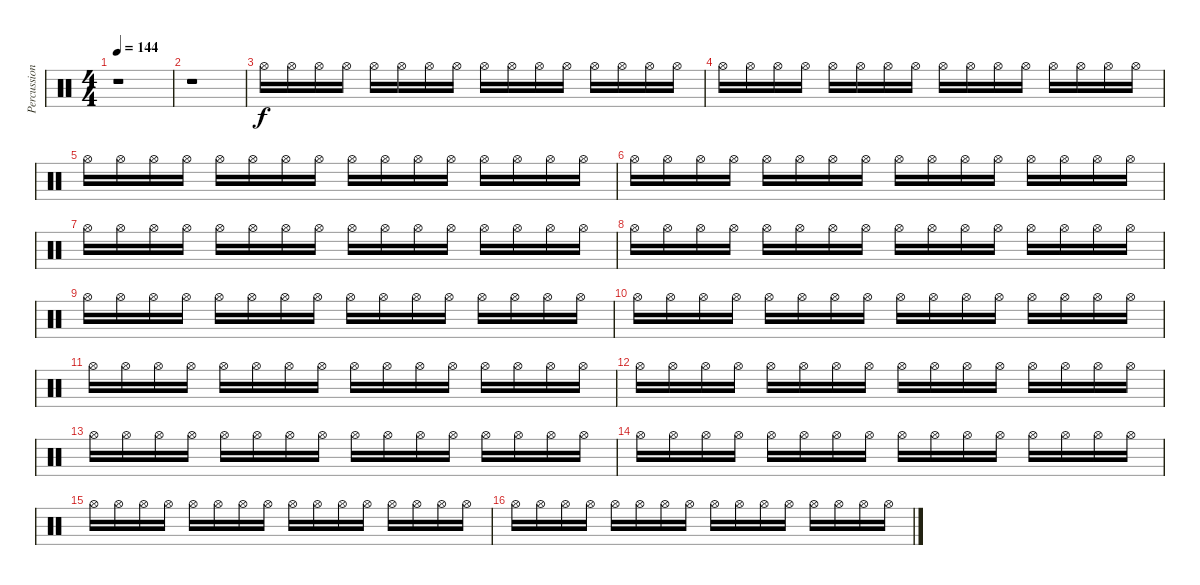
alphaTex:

\track ("Percussion" "Percussion") {instrument percussion}
\staff {score}
\articulation defaults
\ts (4 4)
\tempo 144
\clef neutral
\ks c
r.1{dy f} |
r.1 |
"Hi-Hat (open)".16 "Hi-Hat (open)".16 "Hi-Hat (open)".16 "Hi-Hat (open)".16 "Hi-Hat (open)".16 "Hi-Hat (open)".16 "Hi-Hat (open)".16 "Hi-Hat (open)".16 "Hi-Hat (open)".16 "Hi-Hat (open)".16 "Hi-Hat (open)".16 "Hi-Hat (open)".16 "Hi-Hat (open)".16 "Hi-Hat (open)".16 "Hi-Hat (open)".16 "Hi-Hat (open)".16 |
"Hi-Hat (open)".16 "Hi-Hat (open)".16 "Hi-Hat (open)".16 "Hi-Hat (open)".16 "Hi-Hat (open)".16 "Hi-Hat (open)".16 "Hi-Hat (open)".16 "Hi-Hat (open)".16 "Hi-Hat (open)".16 "Hi-Hat (open)".16 "Hi-Hat (open)".16 "Hi-Hat (open)".16 "Hi-Hat (open)".16 "Hi-Hat (open)".16 "Hi-Hat (open)".16 "Hi-Hat (open)".16 |
"Hi-Hat (open)".16 "Hi-Hat (open)".16 "Hi-Hat (open)".16 "Hi-Hat (open)".16 "Hi-Hat (open)".16 "Hi-Hat (open)".16 "Hi-Hat (open)".16 "Hi-Hat (open)".16 "Hi-Hat (open)".16 "Hi-Hat (open)".16 "Hi-Hat (open)".16 "Hi-Hat (open)".16 "Hi-Hat (open)".16 "Hi-Hat (open)".16 "Hi-Hat (open)".16 "Hi-Hat (open)".16 |
"Hi-Hat (open)".16 "Hi-Hat (open)".16 "Hi-Hat (open)".16 "Hi-Hat (open)".16 "Hi-Hat (open)".16 "Hi-Hat (open)".16 "Hi-Hat (open)".16 "Hi-Hat (open)".16 "Hi-Hat (open)".16 "Hi-Hat (open)".16 "Hi-Hat (open)".16 "Hi-Hat (open)".16 "Hi-Hat (open)".16 "Hi-Hat (open)".16 "Hi-Hat (open)".16 "Hi-Hat (open)".16 |
"Hi-Hat (open)".16 "Hi-Hat (open)".16 "Hi-Hat (open)".16 "Hi-Hat (open)".16 "Hi-Hat (open)".16 "Hi-Hat (open)".16 "Hi-Hat (open)".16 "Hi-Hat (open)".16 "Hi-Hat (open)".16 "Hi-Hat (open)".16 "Hi-Hat (open)".16 "Hi-Hat (open)".16 "Hi-Hat (open)".16 "Hi-Hat (open)".16 "Hi-Hat (open)".16 "Hi-Hat (open)".16 |
"Hi-Hat (open)".16 "Hi-Hat (open)".16 "Hi-Hat (open)".16 "Hi-Hat (open)".16 "Hi-Hat (open)".16 "Hi-Hat (open)".16 "Hi-Hat (open)".16 "Hi-Hat (open)".16 "Hi-Hat (open)".16 "Hi-Hat (open)".16 "Hi-Hat (open)".16 "Hi-Hat (open)".16 "Hi-Hat (open)".16 "Hi-Hat (open)".16 "Hi-Hat (open)".16 "Hi-Hat (open)".16 |
"Hi-Hat (open)".16 "Hi-Hat (open)".16 "Hi-Hat (open)".16 "Hi-Hat (open)".16 "Hi-Hat (open)".16 "Hi-Hat (open)".16 "Hi-Hat (open)".16 "Hi-Hat (open)".16 "Hi-Hat (open)".16 "Hi-Hat (open)".16 "Hi-Hat (open)".16 "Hi-Hat (open)".16 "Hi-Hat (open)".16 "Hi-Hat (open)".16 "Hi-Hat (open)".16 "Hi-Hat (open)".16 |
"Hi-Hat (open)".16 "Hi-Hat (open)".16 "Hi-Hat (open)".16 "Hi-Hat (open)".16 "Hi-Hat (open)".16 "Hi-Hat (open)".16 "Hi-Hat (open)".16 "Hi-Hat (open)".16 "Hi-Hat (open)".16 "Hi-Hat (open)".16 "Hi-Hat (open)".16 "Hi-Hat (open)".16 "Hi-Hat (open)".16 "Hi-Hat (open)".16 "Hi-Hat (open)".16 "Hi-Hat (open)".16 |
"Hi-Hat (open)".16 "Hi-Hat (open)".16 "Hi-Hat (open)".16 "Hi-Hat (open)".16 "Hi-Hat (open)".16 "Hi-Hat (open)".16 "Hi-Hat (open)".16 "Hi-Hat (open)".16 "Hi-Hat (open)".16 "Hi-Hat (open)".16 "Hi-Hat (open)".16 "Hi-Hat (open)".16 "Hi-Hat (open)".16 "Hi-Hat (open)".16 "Hi-Hat (open)".16 "Hi-Hat (open)".16 |
"Hi-Hat (open)".16 "Hi-Hat (open)".16 "Hi-Hat (open)".16 "Hi-Hat (open)".16 "Hi-Hat (open)".16 "Hi-Hat (open)".16 "Hi-Hat (open)".16 "Hi-Hat (open)".16 "Hi-Hat (open)".16 "Hi-Hat (open)".16 "Hi-Hat (open)".16 "Hi-Hat (open)".16 "Hi-Hat (open)".16 "Hi-Hat (open)".16 "Hi-Hat (open)".16 "Hi-Hat (open)".16 |
"Hi-Hat (open)".16 "Hi-Hat (open)".16 "Hi-Hat (open)".16 "Hi-Hat (open)".16 "Hi-Hat (open)".16 "Hi-Hat (open)".16 "Hi-Hat (open)".16 "Hi-Hat (open)".16 "Hi-Hat (open)".16 "Hi-Hat (open)".16 "Hi-Hat (open)".16 "Hi-Hat (open)".16 "Hi-Hat (open)".16 "Hi-Hat (open)".16 "Hi-Hat (open)".16 "Hi-Hat (open)".16 |
"Hi-Hat (open)".16 "Hi-Hat (open)".16 "Hi-Hat (open)".16 "Hi-Hat (open)".16 "Hi-Hat (open)".16 "Hi-Hat (open)".16 "Hi-Hat (open)".16 "Hi-Hat (open)".16 "Hi-Hat (open)".16 "Hi-Hat (open)".16 "Hi-Hat (open)".16 "Hi-Hat (open)".16 "Hi-Hat (open)".16 "Hi-Hat (open)".16 "Hi-Hat (open)".16 "Hi-Hat (open)".16 |
"Hi-Hat (open)".16 "Hi-Hat (open)".16 "Hi-Hat (open)".16 "Hi-Hat (open)".16 "Hi-Hat (open)".16 "Hi-Hat (open)".16 "Hi-Hat (open)".16 "Hi-Hat (open)".16 "Hi-Hat (open)".16 "Hi-Hat (open)".16 "Hi-Hat (open)".16 "Hi-Hat (open)".16 "Hi-Hat (open)".16 "Hi-Hat (open)".16 "Hi-Hat (open)".16 "Hi-Hat (open)".16 |
"Hi-Hat (open)".16 "Hi-Hat (open)".16 "Hi-Hat (open)".16 "Hi-Hat (open)".16 "Hi-Hat (open)".16 "Hi-Hat (open)".16 "Hi-Hat (open)".16 "Hi-Hat (open)".16 "Hi-Hat (open)".16 "Hi-Hat (open)".16 "Hi-Hat (open)".16 "Hi-Hat (open)".16 "Hi-Hat (open)".16 "Hi-Hat (open)".16 "Hi-Hat (open)".16 "Hi-Hat (open)".16
